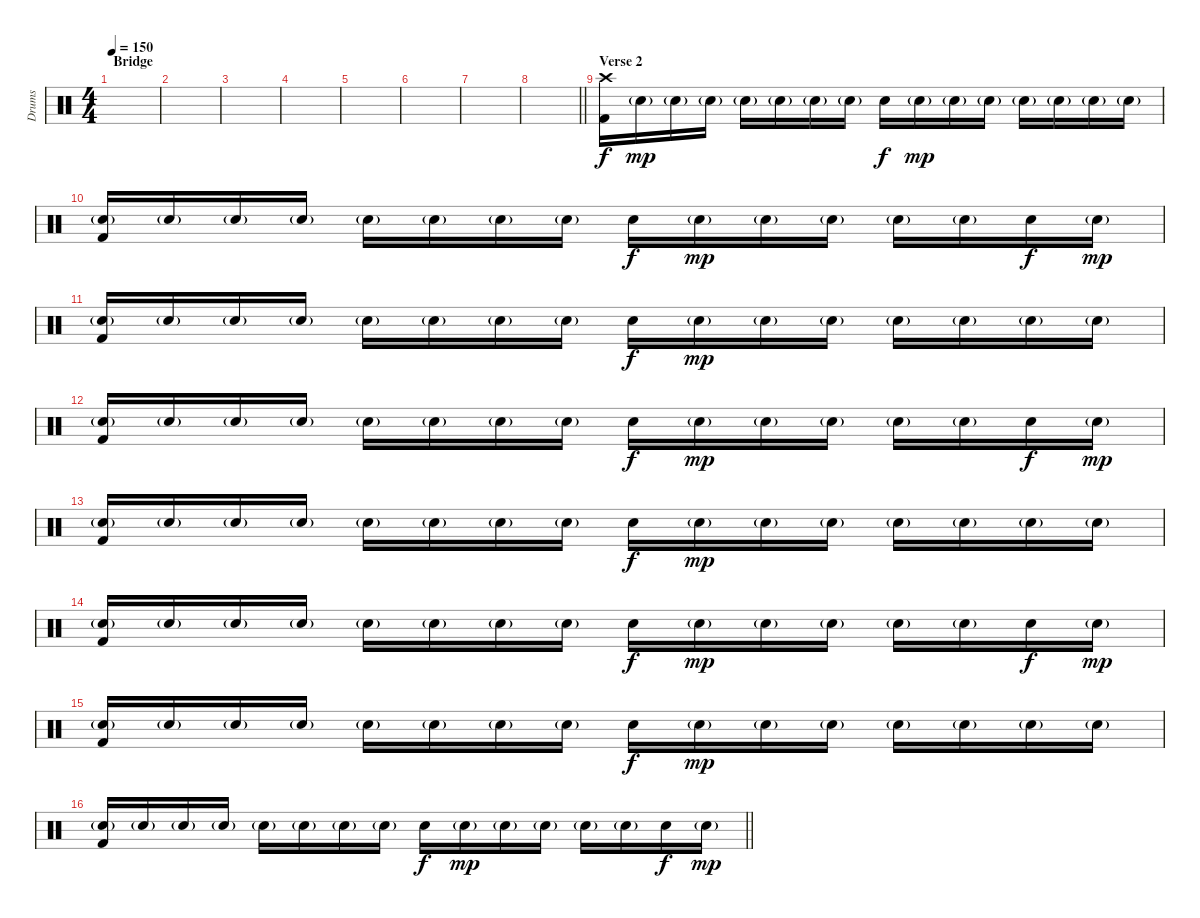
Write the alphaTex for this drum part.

\track ("Drums" "Drums") {instrument percussion}
\staff {score}
\articulation defaults
\ts (4 4)
\section ("" "Bridge")
\tempo 150
\clef neutral
\ks c
|
|
|
|
|
|
|
\barLineRight lightlight
|
\section ("" "Verse 2")
("Kick (hit) 2" "Crash high (hit)").16 "Electric Snare (hit)"{g}.16{dy mp} "Electric Snare (hit)"{g}.16 "Electric Snare (hit)"{g}.16 "Electric Snare (hit)"{g}.16 "Electric Snare (hit)"{g}.16 "Electric Snare (hit)"{g}.16 "Electric Snare (hit)"{g}.16 "Electric Snare (hit)".16{dy f} "Electric Snare (hit)"{g}.16{dy mp} "Electric Snare (hit)"{g}.16 "Electric Snare (hit)"{g}.16 "Electric Snare (hit)"{g}.16 "Electric Snare (hit)"{g}.16 "Electric Snare (hit)"{g}.16 "Electric Snare (hit)"{g}.16 |
("Kick (hit) 2" "Electric Snare (hit)"{g}).16 "Electric Snare (hit)"{g}.16 "Electric Snare (hit)"{g}.16 "Electric Snare (hit)"{g}.16 "Electric Snare (hit)"{g}.16 "Electric Snare (hit)"{g}.16 "Electric Snare (hit)"{g}.16 "Electric Snare (hit)"{g}.16 "Electric Snare (hit)".16{dy f} "Electric Snare (hit)"{g}.16{dy mp} "Electric Snare (hit)"{g}.16 "Electric Snare (hit)"{g}.16 "Electric Snare (hit)"{g}.16 "Electric Snare (hit)"{g}.16 "Electric Snare (hit)".16{dy f} "Electric Snare (hit)"{g}.16{dy mp} |
("Kick (hit) 2" "Electric Snare (hit)"{g}).16 "Electric Snare (hit)"{g}.16 "Electric Snare (hit)"{g}.16 "Electric Snare (hit)"{g}.16 "Electric Snare (hit)"{g}.16 "Electric Snare (hit)"{g}.16 "Electric Snare (hit)"{g}.16 "Electric Snare (hit)"{g}.16 "Electric Snare (hit)".16{dy f} "Electric Snare (hit)"{g}.16{dy mp} "Electric Snare (hit)"{g}.16 "Electric Snare (hit)"{g}.16 "Electric Snare (hit)"{g}.16 "Electric Snare (hit)"{g}.16 "Electric Snare (hit)"{g}.16 "Electric Snare (hit)"{g}.16 |
("Kick (hit) 2" "Electric Snare (hit)"{g}).16 "Electric Snare (hit)"{g}.16 "Electric Snare (hit)"{g}.16 "Electric Snare (hit)"{g}.16 "Electric Snare (hit)"{g}.16 "Electric Snare (hit)"{g}.16 "Electric Snare (hit)"{g}.16 "Electric Snare (hit)"{g}.16 "Electric Snare (hit)".16{dy f} "Electric Snare (hit)"{g}.16{dy mp} "Electric Snare (hit)"{g}.16 "Electric Snare (hit)"{g}.16 "Electric Snare (hit)"{g}.16 "Electric Snare (hit)"{g}.16 "Electric Snare (hit)".16{dy f} "Electric Snare (hit)"{g}.16{dy mp} |
("Kick (hit) 2" "Electric Snare (hit)"{g}).16 "Electric Snare (hit)"{g}.16 "Electric Snare (hit)"{g}.16 "Electric Snare (hit)"{g}.16 "Electric Snare (hit)"{g}.16 "Electric Snare (hit)"{g}.16 "Electric Snare (hit)"{g}.16 "Electric Snare (hit)"{g}.16 "Electric Snare (hit)".16{dy f} "Electric Snare (hit)"{g}.16{dy mp} "Electric Snare (hit)"{g}.16 "Electric Snare (hit)"{g}.16 "Electric Snare (hit)"{g}.16 "Electric Snare (hit)"{g}.16 "Electric Snare (hit)"{g}.16 "Electric Snare (hit)"{g}.16 |
("Kick (hit) 2" "Electric Snare (hit)"{g}).16 "Electric Snare (hit)"{g}.16 "Electric Snare (hit)"{g}.16 "Electric Snare (hit)"{g}.16 "Electric Snare (hit)"{g}.16 "Electric Snare (hit)"{g}.16 "Electric Snare (hit)"{g}.16 "Electric Snare (hit)"{g}.16 "Electric Snare (hit)".16{dy f} "Electric Snare (hit)"{g}.16{dy mp} "Electric Snare (hit)"{g}.16 "Electric Snare (hit)"{g}.16 "Electric Snare (hit)"{g}.16 "Electric Snare (hit)"{g}.16 "Electric Snare (hit)".16{dy f} "Electric Snare (hit)"{g}.16{dy mp} |
("Kick (hit) 2" "Electric Snare (hit)"{g}).16 "Electric Snare (hit)"{g}.16 "Electric Snare (hit)"{g}.16 "Electric Snare (hit)"{g}.16 "Electric Snare (hit)"{g}.16 "Electric Snare (hit)"{g}.16 "Electric Snare (hit)"{g}.16 "Electric Snare (hit)"{g}.16 "Electric Snare (hit)".16{dy f} "Electric Snare (hit)"{g}.16{dy mp} "Electric Snare (hit)"{g}.16 "Electric Snare (hit)"{g}.16 "Electric Snare (hit)"{g}.16 "Electric Snare (hit)"{g}.16 "Electric Snare (hit)"{g}.16 "Electric Snare (hit)"{g}.16 |
\barLineRight lightlight
("Kick (hit) 2" "Electric Snare (hit)"{g}).16 "Electric Snare (hit)"{g}.16 "Electric Snare (hit)"{g}.16 "Electric Snare (hit)"{g}.16 "Electric Snare (hit)"{g}.16 "Electric Snare (hit)"{g}.16 "Electric Snare (hit)"{g}.16 "Electric Snare (hit)"{g}.16 "Electric Snare (hit)".16{dy f} "Electric Snare (hit)"{g}.16{dy mp} "Electric Snare (hit)"{g}.16 "Electric Snare (hit)"{g}.16 "Electric Snare (hit)"{g}.16 "Electric Snare (hit)"{g}.16 "Electric Snare (hit)".16{dy f} "Electric Snare (hit)"{g}.16{dy mp}
